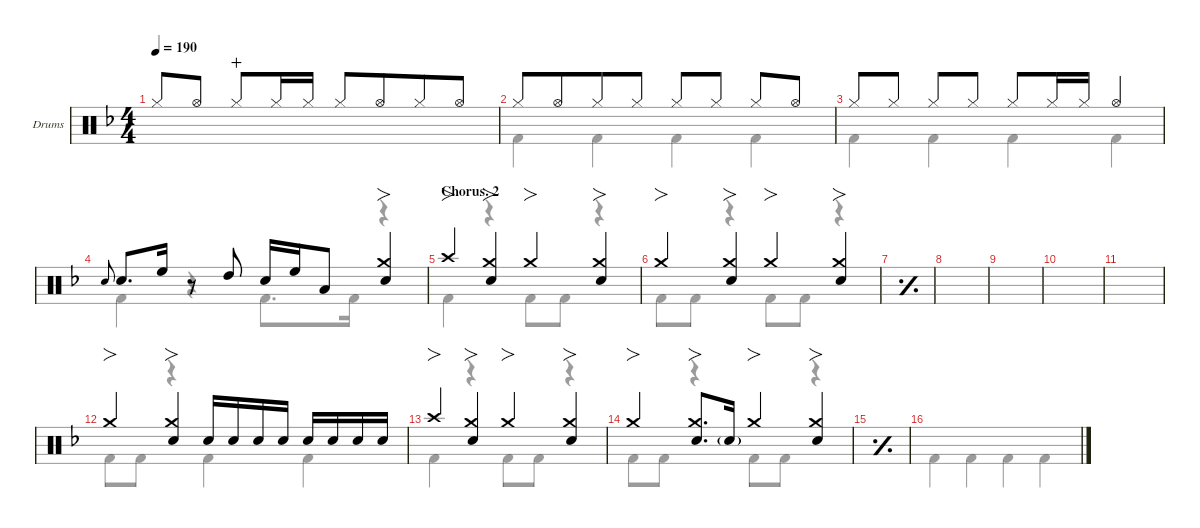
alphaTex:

\defaultSystemsLayout 4
\hideDynamics
\bracketExtendMode nobrackets
\firstSystemTrackNameOrientation horizontal
\track ("Drums" "Drums") {defaultSystemsLayout 4 instrument percussion}
\staff {score}
\articulation defaults
\voice
\ts (4 4)
\tempo 190
\clef neutral
\scale
0.267605
\ks dminor "Hi-Hat (closed)"{acc forcenatural}.8{dy f beam Up} "Hi-Hat (open)"{acc forcenatural}.8{beam Up beam split} "Hi-Hat (closed)"{acc forcenatural}.8{dy mp wahc beam Up} "Hi-Hat (closed)"{acc forcenatural}.16{dy f beam Up} "Hi-Hat (closed)"{acc forcenatural}.16{dy mf beam Up} "Hi-Hat (closed)"{acc forcenatural}.8{dy f beam Up beam merge} "Hi-Hat (open)"{acc forcenatural}.8{beam Up beam merge} "Hi-Hat (closed)"{acc forcenatural}.8{beam Up beam merge} "Hi-Hat (open)"{acc forcenatural}.8{beam Up beam split}
|
\scale
0.244132 "Hi-Hat (closed)"{acc forcenatural}.8{beam Up} "Hi-Hat (open)"{acc forcenatural}.8{beam Up beam merge} "Hi-Hat (closed)"{acc forcenatural}.8{beam Up beam merge} "Hi-Hat (closed)"{acc forcenatural}.8{dy mf beam Up} "Hi-Hat (closed)"{acc forcenatural}.8{dy f beam Up} "Hi-Hat (closed)"{acc forcenatural}.8{dy mf beam Up} "Hi-Hat (closed)"{acc forcenatural}.8{dy f beam Up beam merge} "Hi-Hat (open)"{acc forcenatural}.8{beam Up beam split} |
\scale
0.244132 "Hi-Hat (closed)"{acc forcenatural}.8{beam Up} "Hi-Hat (closed)"{acc forcenatural}.8{dy mf beam Up} "Hi-Hat (closed)"{acc forcenatural}.8{dy f beam Up} "Hi-Hat (closed)"{acc forcenatural}.8{dy mf beam Up} "Hi-Hat (closed)"{acc forcenatural}.8{dy f beam Up} "Hi-Hat (closed)"{acc forcenatural}.16{beam Up} "Hi-Hat (closed)"{acc forcenatural}.16{dy mf beam Up} "Hi-Hat (open)"{acc forcenatural}.4{dy f beam Up} |
\scale
0.244132 "Snare (hit) 2"{acc forcenatural}.8{gr onbeat beam Up} "Snare (hit) 2"{acc forcenatural}.8{d beam Up} "High Floor Tom (hit)"{acc forcenatural}.16{beam Up beam split} r.8{beam Up beam split} "High Tom (hit)"{acc forcenatural}.8{beam Up} "Snare (hit) 2"{acc forcenatural}.16{beam Up} "High Floor Tom (hit)"{acc forcenatural}.16{beam Up} "Low Tom (hit)"{acc forcenatural}.8{beam Up} ("Snare (hit) 2"{acc forcenatural} "Crash medium (hit)"{acc forcenatural}).4{fo beam Up} |
\section ("" "Chorus. 2")
\scale
0.267605 "Crash high (hit)"{acc forcenatural}.4{fo beam Up} ("Snare (hit) 2"{acc forcenatural} "Crash medium (hit)"{acc forcenatural}).4{fo beam Up} "Crash medium (hit)"{acc forcenatural}.4{fo beam Up} ("Crash medium (hit)"{acc forcenatural} "Snare (hit) 2"{acc forcenatural}).4{fo beam Up} |
\scale
0.244132 "Crash medium (hit)"{acc forcenatural}.4{fo beam Up} ("Crash medium (hit)"{acc forcenatural} "Snare (hit) 2"{acc forcenatural}).4{fo beam Up} "Crash medium (hit)"{acc forcenatural}.4{fo beam Up} ("Crash medium (hit)"{acc forcenatural} "Snare (hit) 2"{acc forcenatural}).4{fo beam Up} |
\simile simple
\scale
0.244132 |
\scale
0.244132 |
\scale
0.267605 |
\scale
0.243474 |
\scale
0.244789 |
\simile none
\scale
0.244132 "Crash medium (hit)"{acc forcenatural}.4{fo beam Up} ("Crash medium (hit)"{acc forcenatural} "Snare (hit) 2"{acc forcenatural}).4{fo beam Up beam merge} "Snare (hit) 2"{acc forcenatural}.16{beam Up} "Snare (hit) 2"{acc forcenatural}.16{dy mp beam Up} "Snare (hit) 2"{acc forcenatural}.16{dy mf beam Up} "Snare (hit) 2"{acc forcenatural}.16{dy mp beam Up beam split} "Snare (hit) 2"{acc forcenatural}.16{dy f beam Up} "Snare (hit) 2"{acc forcenatural}.16{dy mp beam Up} "Snare (hit) 2"{acc forcenatural}.16{dy mf beam Up} "Snare (hit) 2"{acc forcenatural}.16{dy mp beam Up beam split} |
\scale
0.267605 "Crash high (hit)"{acc forcenatural}.4{fo dy f beam Up} ("Crash medium (hit)"{acc forcenatural} "Snare (hit) 2"{acc forcenatural}).4{fo beam Up} "Crash medium (hit)"{acc forcenatural}.4{fo beam Up} ("Crash medium (hit)"{acc forcenatural} "Snare (hit) 2"{acc forcenatural}).4{fo beam Up} |
\scale
0.243474 "Crash medium (hit)"{acc forcenatural}.4{fo beam Up} ("Crash medium (hit)"{acc forcenatural} "Snare (hit) 2"{acc forcenatural}).8{fo d beam Up} "Snare (hit) 2"{g acc forcenatural}.16{dy mf beam Up} "Crash medium (hit)"{acc forcenatural}.4{fo dy f beam Up} ("Crash medium (hit)"{acc forcenatural} "Snare (hit) 2"{acc forcenatural}).4{fo beam Up} |
\simile simple
\scale
0.244789 |
\scale
0.244132
\voice
\clef neutral
\ottava regular
\simile none
\scale
0.267605
\ks dminor "Kick (hit) 2"{acc forcenatural}.4{dy f beam Down} "Kick (hit) 2"{acc forcenatural}.4{beam Down} "Kick (hit) 2"{acc forcenatural}.4{beam Down} "Kick (hit) 2"{acc forcenatural}.4{beam Down}
|
\scale
0.244132 "Kick (hit) 2"{acc forcenatural}.4{beam Down} "Kick (hit) 2"{acc forcenatural}.4{beam Down} "Kick (hit) 2"{acc forcenatural}.4{beam Down} "Kick (hit) 2"{acc forcenatural}.4{beam Down} |
\scale
0.244132 "Kick (hit) 2"{acc forcenatural}.4{beam Down} "Kick (hit) 2"{acc forcenatural}.4{beam Down} "Kick (hit) 2"{acc forcenatural}.4{beam Down} "Kick (hit) 2"{acc forcenatural}.4{beam Down} |
\scale
0.244132 "Kick (hit) 2"{acc forcenatural}.4{beam Down} r.4{beam Down} "Kick (hit) 2"{acc forcenatural}.8{d beam Down} "Kick (hit) 2"{acc forcenatural}.16{beam Down} r.4{beam Down} |
\scale
0.267605 "Kick (hit) 2"{acc forcenatural}.4{beam Down} r.4{beam Down} "Kick (hit) 2"{acc forcenatural}.8{beam Down} "Kick (hit) 2"{acc forcenatural}.8{beam Down} r.4{beam Down} |
\scale
0.244132 "Kick (hit) 2"{acc forcenatural}.8{beam Down} "Kick (hit) 2"{acc forcenatural}.8{beam Down} r.4{beam Down} "Kick (hit) 2"{acc forcenatural}.8{beam Down} "Kick (hit) 2"{acc forcenatural}.8{beam Down} r.4{beam Down} |
\simile simple
\scale
0.244132 |
\scale
0.244132 |
\scale
0.267605 |
\scale
0.243474 |
\scale
0.244789 |
\simile none
\scale
0.244132 "Kick (hit) 2"{acc forcenatural}.8{beam Down} "Kick (hit) 2"{acc forcenatural}.8{beam Down} r.4{beam Down} "Kick (hit) 2"{acc forcenatural}.4{beam Down} "Kick (hit) 2"{acc forcenatural}.4{beam Down} |
\scale
0.267605 "Kick (hit) 2"{acc forcenatural}.4{beam Down} r.4{beam Down} "Kick (hit) 2"{acc forcenatural}.8{beam Down} "Kick (hit) 2"{acc forcenatural}.8{beam Down} r.4{beam Down} |
\scale
0.243474 "Kick (hit) 2"{acc forcenatural}.8{beam Down} "Kick (hit) 2"{acc forcenatural}.8{beam Down} r.4{beam Down} "Kick (hit) 2"{acc forcenatural}.8{beam Down} "Kick (hit) 2"{acc forcenatural}.8{beam Down} r.4{beam Down} |
\simile simple
\scale
0.244789 |
\scale
0.244132
